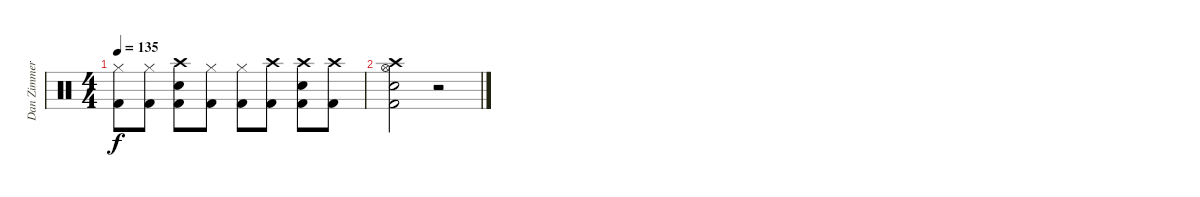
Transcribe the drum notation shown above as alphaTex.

\track ("Dan Zimmerman" "Dan Zimmer") {instrument percussion}
\staff {score}
\articulation defaults
\ts (4 4)
\tempo 135
\clef neutral
\ks c
("Hi-Hat (closed)" "Kick (hit) 2").8{dy f} ("Hi-Hat (closed)" "Kick (hit) 2").8 ("Crash high (hit)" "Kick (hit) 2" "Snare (hit) 2").8 ("Hi-Hat (closed)" "Kick (hit) 2").8 ("Hi-Hat (closed)" "Kick (hit) 2").8 ("Crash high (hit)" "Kick (hit) 2").8 ("Crash high (hit)" "Kick (hit) 2" "Snare (hit) 2").8 ("Crash high (hit)" "Kick (hit) 2").8 |
("Hi-Hat (open)" "Crash high (hit)" "Snare (hit) 2" "Kick (hit) 2").2 r.2
